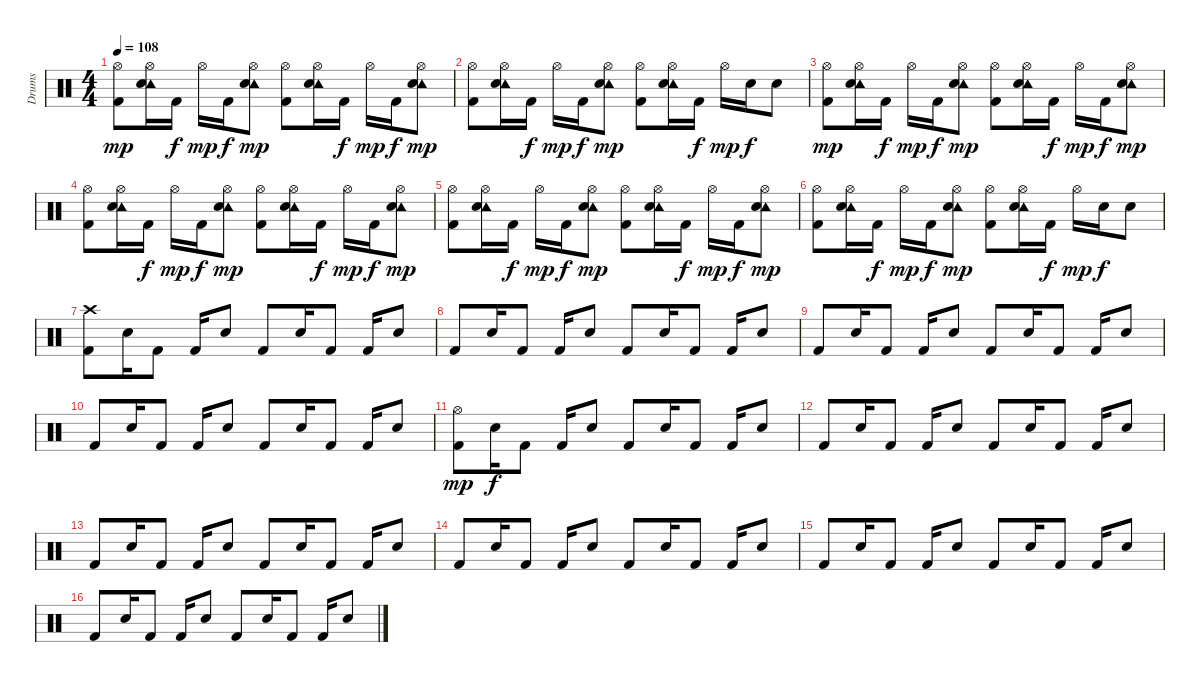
\track ("Drums" "Drums") {instrument percussion}
\staff {score}
\articulation defaults
\ts (4 4)
\tempo 108
\clef neutral
\ks c
("Hi-Hat (open)" "Kick (hit) 2").8{dy mp} ("Tambourine (hit)" "Hi-Hat (open)" "Snare (hit) 2").16 "Kick (hit) 2".16{dy f} "Hi-Hat (open)".16{dy mp} "Kick (hit) 2".16{dy f} ("Tambourine (hit)" "Hi-Hat (open)" "Snare (hit) 2").8{dy mp} ("Hi-Hat (open)" "Kick (hit) 2").8 ("Tambourine (hit)" "Hi-Hat (open)" "Snare (hit) 2").16 "Kick (hit) 2".16{dy f} "Hi-Hat (open)".16{dy mp} "Kick (hit) 2".16{dy f} ("Tambourine (hit)" "Hi-Hat (open)" "Snare (hit) 2").8{dy mp} |
("Hi-Hat (open)" "Kick (hit) 2").8 ("Tambourine (hit)" "Hi-Hat (open)" "Snare (hit) 2").16 "Kick (hit) 2".16{dy f} "Hi-Hat (open)".16{dy mp} "Kick (hit) 2".16{dy f} ("Tambourine (hit)" "Hi-Hat (open)" "Snare (hit) 2").8{dy mp} ("Hi-Hat (open)" "Kick (hit) 2").8 ("Tambourine (hit)" "Hi-Hat (open)" "Snare (hit) 2").16 "Kick (hit) 2".16{dy f} "Hi-Hat (open)".16{dy mp} "Snare (hit) 2".16{dy f} "Snare (hit) 2".8 |
("Hi-Hat (open)" "Kick (hit) 2").8{dy mp} ("Tambourine (hit)" "Hi-Hat (open)" "Snare (hit) 2").16 "Kick (hit) 2".16{dy f} "Hi-Hat (open)".16{dy mp} "Kick (hit) 2".16{dy f} ("Tambourine (hit)" "Hi-Hat (open)" "Snare (hit) 2").8{dy mp} ("Hi-Hat (open)" "Kick (hit) 2").8 ("Tambourine (hit)" "Hi-Hat (open)" "Snare (hit) 2").16 "Kick (hit) 2".16{dy f} "Hi-Hat (open)".16{dy mp} "Kick (hit) 2".16{dy f} ("Tambourine (hit)" "Hi-Hat (open)" "Snare (hit) 2").8{dy mp} |
("Hi-Hat (open)" "Kick (hit) 2").8 ("Tambourine (hit)" "Hi-Hat (open)" "Snare (hit) 2").16 "Kick (hit) 2".16{dy f} "Hi-Hat (open)".16{dy mp} "Kick (hit) 2".16{dy f} ("Tambourine (hit)" "Hi-Hat (open)" "Snare (hit) 2").8{dy mp} ("Hi-Hat (open)" "Kick (hit) 2").8 ("Tambourine (hit)" "Hi-Hat (open)" "Snare (hit) 2").16 "Kick (hit) 2".16{dy f} "Hi-Hat (open)".16{dy mp} "Kick (hit) 2".16{dy f} ("Tambourine (hit)" "Hi-Hat (open)" "Snare (hit) 2").8{dy mp} |
("Hi-Hat (open)" "Kick (hit) 2").8 ("Tambourine (hit)" "Hi-Hat (open)" "Snare (hit) 2").16 "Kick (hit) 2".16{dy f} "Hi-Hat (open)".16{dy mp} "Kick (hit) 2".16{dy f} ("Tambourine (hit)" "Hi-Hat (open)" "Snare (hit) 2").8{dy mp} ("Hi-Hat (open)" "Kick (hit) 2").8 ("Tambourine (hit)" "Hi-Hat (open)" "Snare (hit) 2").16 "Kick (hit) 2".16{dy f} "Hi-Hat (open)".16{dy mp} "Kick (hit) 2".16{dy f} ("Tambourine (hit)" "Hi-Hat (open)" "Snare (hit) 2").8{dy mp} |
("Hi-Hat (open)" "Kick (hit) 2").8 ("Tambourine (hit)" "Hi-Hat (open)" "Snare (hit) 2").16 "Kick (hit) 2".16{dy f} "Hi-Hat (open)".16{dy mp} "Kick (hit) 2".16{dy f} ("Tambourine (hit)" "Hi-Hat (open)" "Snare (hit) 2").8{dy mp} ("Hi-Hat (open)" "Kick (hit) 2").8 ("Tambourine (hit)" "Hi-Hat (open)" "Snare (hit) 2").16 "Kick (hit) 2".16{dy f} "Hi-Hat (open)".16{dy mp} "Snare (hit) 2".16{dy f} "Snare (hit) 2".8 |
("Crash high (hit)" "Kick (hit) 2").8 "Snare (hit) 2".16 "Kick (hit) 2".8 "Kick (hit) 2".16 "Snare (hit) 2".8 "Kick (hit) 2".8 "Snare (hit) 2".16 "Kick (hit) 2".8 "Kick (hit) 2".16 "Snare (hit) 2".8 |
"Kick (hit) 2".8 "Snare (hit) 2".16 "Kick (hit) 2".8 "Kick (hit) 2".16 "Snare (hit) 2".8 "Kick (hit) 2".8 "Snare (hit) 2".16 "Kick (hit) 2".8 "Kick (hit) 2".16 "Snare (hit) 2".8 |
"Kick (hit) 2".8 "Snare (hit) 2".16 "Kick (hit) 2".8 "Kick (hit) 2".16 "Snare (hit) 2".8 "Kick (hit) 2".8 "Snare (hit) 2".16 "Kick (hit) 2".8 "Kick (hit) 2".16 "Snare (hit) 2".8 |
"Kick (hit) 2".8 "Snare (hit) 2".16 "Kick (hit) 2".8 "Kick (hit) 2".16 "Snare (hit) 2".8 "Kick (hit) 2".8 "Snare (hit) 2".16 "Kick (hit) 2".8 "Kick (hit) 2".16 "Snare (hit) 2".8 |
("Hi-Hat (open)" "Kick (hit) 2").8{dy mp} "Snare (hit) 2".16{dy f} "Kick (hit) 2".8 "Kick (hit) 2".16 "Snare (hit) 2".8 "Kick (hit) 2".8 "Snare (hit) 2".16 "Kick (hit) 2".8 "Kick (hit) 2".16 "Snare (hit) 2".8 |
"Kick (hit) 2".8 "Snare (hit) 2".16 "Kick (hit) 2".8 "Kick (hit) 2".16 "Snare (hit) 2".8 "Kick (hit) 2".8 "Snare (hit) 2".16 "Kick (hit) 2".8 "Kick (hit) 2".16 "Snare (hit) 2".8 |
"Kick (hit) 2".8 "Snare (hit) 2".16 "Kick (hit) 2".8 "Kick (hit) 2".16 "Snare (hit) 2".8 "Kick (hit) 2".8 "Snare (hit) 2".16 "Kick (hit) 2".8 "Kick (hit) 2".16 "Snare (hit) 2".8 |
"Kick (hit) 2".8 "Snare (hit) 2".16 "Kick (hit) 2".8 "Kick (hit) 2".16 "Snare (hit) 2".8 "Kick (hit) 2".8 "Snare (hit) 2".16 "Kick (hit) 2".8 "Kick (hit) 2".16 "Snare (hit) 2".8 |
"Kick (hit) 2".8 "Snare (hit) 2".16 "Kick (hit) 2".8 "Kick (hit) 2".16 "Snare (hit) 2".8 "Kick (hit) 2".8 "Snare (hit) 2".16 "Kick (hit) 2".8 "Kick (hit) 2".16 "Snare (hit) 2".8 |
"Kick (hit) 2".8 "Snare (hit) 2".16 "Kick (hit) 2".8 "Kick (hit) 2".16 "Snare (hit) 2".8 "Kick (hit) 2".8 "Snare (hit) 2".16 "Kick (hit) 2".8 "Kick (hit) 2".16 "Snare (hit) 2".8
